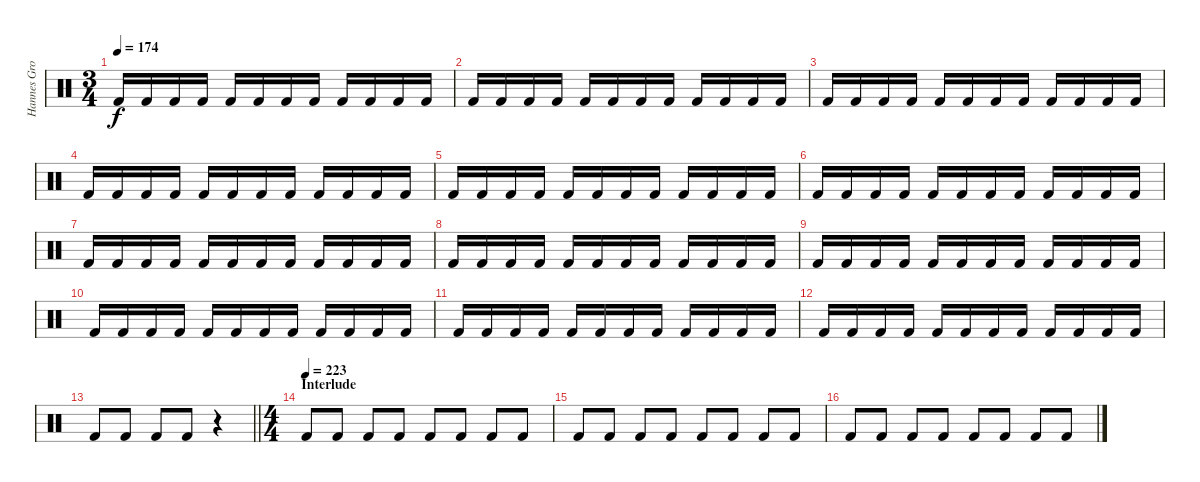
\track ("Hannes Grossmann" "Hannes Gro") {instrument percussion}
\staff {score}
\articulation defaults
\ts (3 4)
\tempo 174
\clef neutral
\ks c "Kick (hit) 2".16{dy f} "Kick (hit) 2".16 "Kick (hit) 2".16 "Kick (hit) 2".16 "Kick (hit) 2".16 "Kick (hit) 2".16 "Kick (hit) 2".16 "Kick (hit) 2".16 "Kick (hit) 2".16 "Kick (hit) 2".16 "Kick (hit) 2".16 "Kick (hit) 2".16
|
"Kick (hit) 2".16 "Kick (hit) 2".16 "Kick (hit) 2".16 "Kick (hit) 2".16 "Kick (hit) 2".16 "Kick (hit) 2".16 "Kick (hit) 2".16 "Kick (hit) 2".16 "Kick (hit) 2".16 "Kick (hit) 2".16 "Kick (hit) 2".16 "Kick (hit) 2".16 |
"Kick (hit) 2".16 "Kick (hit) 2".16 "Kick (hit) 2".16 "Kick (hit) 2".16 "Kick (hit) 2".16 "Kick (hit) 2".16 "Kick (hit) 2".16 "Kick (hit) 2".16 "Kick (hit) 2".16 "Kick (hit) 2".16 "Kick (hit) 2".16 "Kick (hit) 2".16 |
"Kick (hit) 2".16 "Kick (hit) 2".16 "Kick (hit) 2".16 "Kick (hit) 2".16 "Kick (hit) 2".16 "Kick (hit) 2".16 "Kick (hit) 2".16 "Kick (hit) 2".16 "Kick (hit) 2".16 "Kick (hit) 2".16 "Kick (hit) 2".16 "Kick (hit) 2".16 |
"Kick (hit) 2".16 "Kick (hit) 2".16 "Kick (hit) 2".16 "Kick (hit) 2".16 "Kick (hit) 2".16 "Kick (hit) 2".16 "Kick (hit) 2".16 "Kick (hit) 2".16 "Kick (hit) 2".16 "Kick (hit) 2".16 "Kick (hit) 2".16 "Kick (hit) 2".16 |
"Kick (hit) 2".16 "Kick (hit) 2".16 "Kick (hit) 2".16 "Kick (hit) 2".16 "Kick (hit) 2".16 "Kick (hit) 2".16 "Kick (hit) 2".16 "Kick (hit) 2".16 "Kick (hit) 2".16 "Kick (hit) 2".16 "Kick (hit) 2".16 "Kick (hit) 2".16 |
"Kick (hit) 2".16 "Kick (hit) 2".16 "Kick (hit) 2".16 "Kick (hit) 2".16 "Kick (hit) 2".16 "Kick (hit) 2".16 "Kick (hit) 2".16 "Kick (hit) 2".16 "Kick (hit) 2".16 "Kick (hit) 2".16 "Kick (hit) 2".16 "Kick (hit) 2".16 |
"Kick (hit) 2".16 "Kick (hit) 2".16 "Kick (hit) 2".16 "Kick (hit) 2".16 "Kick (hit) 2".16 "Kick (hit) 2".16 "Kick (hit) 2".16 "Kick (hit) 2".16 "Kick (hit) 2".16 "Kick (hit) 2".16 "Kick (hit) 2".16 "Kick (hit) 2".16 |
"Kick (hit) 2".16 "Kick (hit) 2".16 "Kick (hit) 2".16 "Kick (hit) 2".16 "Kick (hit) 2".16 "Kick (hit) 2".16 "Kick (hit) 2".16 "Kick (hit) 2".16 "Kick (hit) 2".16 "Kick (hit) 2".16 "Kick (hit) 2".16 "Kick (hit) 2".16 |
"Kick (hit) 2".16 "Kick (hit) 2".16 "Kick (hit) 2".16 "Kick (hit) 2".16 "Kick (hit) 2".16 "Kick (hit) 2".16 "Kick (hit) 2".16 "Kick (hit) 2".16 "Kick (hit) 2".16 "Kick (hit) 2".16 "Kick (hit) 2".16 "Kick (hit) 2".16 |
"Kick (hit) 2".16 "Kick (hit) 2".16 "Kick (hit) 2".16 "Kick (hit) 2".16 "Kick (hit) 2".16 "Kick (hit) 2".16 "Kick (hit) 2".16 "Kick (hit) 2".16 "Kick (hit) 2".16 "Kick (hit) 2".16 "Kick (hit) 2".16 "Kick (hit) 2".16 |
"Kick (hit) 2".16 "Kick (hit) 2".16 "Kick (hit) 2".16 "Kick (hit) 2".16 "Kick (hit) 2".16 "Kick (hit) 2".16 "Kick (hit) 2".16 "Kick (hit) 2".16 "Kick (hit) 2".16 "Kick (hit) 2".16 "Kick (hit) 2".16 "Kick (hit) 2".16 |
\barLineRight lightlight "Kick (hit) 2".8 "Kick (hit) 2".8 "Kick (hit) 2".8 "Kick (hit) 2".8
r.4 |
\ts (4 4)
\section ("" "Interlude")
\tempo (223)
"Kick (hit) 2".8 "Kick (hit) 2".8 "Kick (hit) 2".8 "Kick (hit) 2".8 "Kick (hit) 2".8 "Kick (hit) 2".8 "Kick (hit) 2".8 "Kick (hit) 2".8 |
"Kick (hit) 2".8 "Kick (hit) 2".8 "Kick (hit) 2".8 "Kick (hit) 2".8 "Kick (hit) 2".8 "Kick (hit) 2".8 "Kick (hit) 2".8 "Kick (hit) 2".8 |
"Kick (hit) 2".8 "Kick (hit) 2".8 "Kick (hit) 2".8 "Kick (hit) 2".8 "Kick (hit) 2".8 "Kick (hit) 2".8 "Kick (hit) 2".8 "Kick (hit) 2".8
